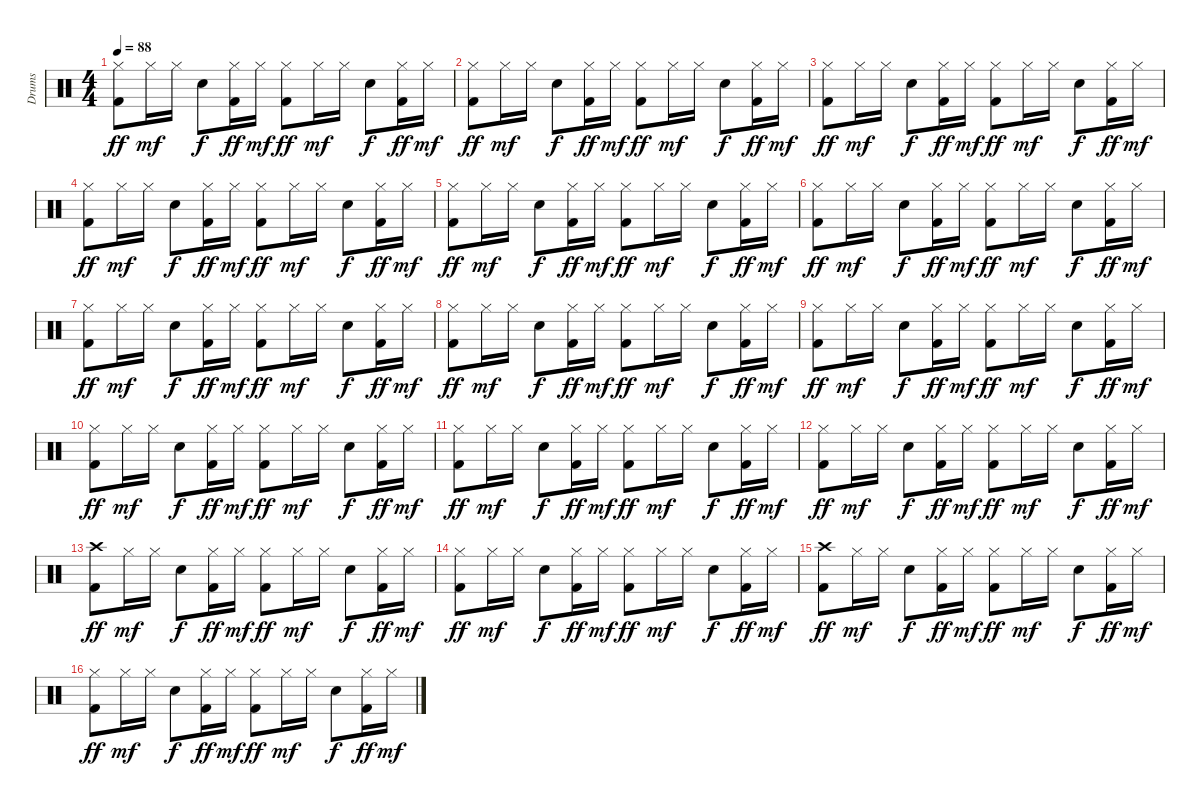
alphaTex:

\track ("Drums" "Drums") {instrument percussion}
\staff {score}
\articulation defaults
\ts (4 4)
\tempo 88
\clef neutral
\ks c
("Hi-Hat (closed)" "Kick (hit) 2").8{dy ff} "Hi-Hat (closed)".16{dy mf} "Hi-Hat (closed)".16 "Snare (hit) 2".8{dy f} ("Hi-Hat (closed)" "Kick (hit) 2").16{dy ff} "Hi-Hat (closed)".16{dy mf} ("Hi-Hat (closed)" "Kick (hit) 2").8{dy ff} "Hi-Hat (closed)".16{dy mf} "Hi-Hat (closed)".16 "Snare (hit) 2".8{dy f} ("Hi-Hat (closed)" "Kick (hit) 2").16{dy ff} "Hi-Hat (closed)".16{dy mf} |
("Hi-Hat (closed)" "Kick (hit) 2").8{dy ff} "Hi-Hat (closed)".16{dy mf} "Hi-Hat (closed)".16 "Snare (hit) 2".8{dy f} ("Hi-Hat (closed)" "Kick (hit) 2").16{dy ff} "Hi-Hat (closed)".16{dy mf} ("Hi-Hat (closed)" "Kick (hit) 2").8{dy ff} "Hi-Hat (closed)".16{dy mf} "Hi-Hat (closed)".16 "Snare (hit) 2".8{dy f} ("Hi-Hat (closed)" "Kick (hit) 2").16{dy ff} "Hi-Hat (closed)".16{dy mf} |
("Hi-Hat (closed)" "Kick (hit) 2").8{dy ff} "Hi-Hat (closed)".16{dy mf} "Hi-Hat (closed)".16 "Snare (hit) 2".8{dy f} ("Hi-Hat (closed)" "Kick (hit) 2").16{dy ff} "Hi-Hat (closed)".16{dy mf} ("Hi-Hat (closed)" "Kick (hit) 2").8{dy ff} "Hi-Hat (closed)".16{dy mf} "Hi-Hat (closed)".16 "Snare (hit) 2".8{dy f} ("Hi-Hat (closed)" "Kick (hit) 2").16{dy ff} "Hi-Hat (closed)".16{dy mf} |
("Hi-Hat (closed)" "Kick (hit) 2").8{dy ff} "Hi-Hat (closed)".16{dy mf} "Hi-Hat (closed)".16 "Snare (hit) 2".8{dy f} ("Hi-Hat (closed)" "Kick (hit) 2").16{dy ff} "Hi-Hat (closed)".16{dy mf} ("Hi-Hat (closed)" "Kick (hit) 2").8{dy ff} "Hi-Hat (closed)".16{dy mf} "Hi-Hat (closed)".16 "Snare (hit) 2".8{dy f} ("Hi-Hat (closed)" "Kick (hit) 2").16{dy ff} "Hi-Hat (closed)".16{dy mf} |
("Hi-Hat (closed)" "Kick (hit) 2").8{dy ff} "Hi-Hat (closed)".16{dy mf} "Hi-Hat (closed)".16 "Snare (hit) 2".8{dy f} ("Hi-Hat (closed)" "Kick (hit) 2").16{dy ff} "Hi-Hat (closed)".16{dy mf} ("Hi-Hat (closed)" "Kick (hit) 2").8{dy ff} "Hi-Hat (closed)".16{dy mf} "Hi-Hat (closed)".16 "Snare (hit) 2".8{dy f} ("Hi-Hat (closed)" "Kick (hit) 2").16{dy ff} "Hi-Hat (closed)".16{dy mf} |
("Hi-Hat (closed)" "Kick (hit) 2").8{dy ff} "Hi-Hat (closed)".16{dy mf} "Hi-Hat (closed)".16 "Snare (hit) 2".8{dy f} ("Hi-Hat (closed)" "Kick (hit) 2").16{dy ff} "Hi-Hat (closed)".16{dy mf} ("Hi-Hat (closed)" "Kick (hit) 2").8{dy ff} "Hi-Hat (closed)".16{dy mf} "Hi-Hat (closed)".16 "Snare (hit) 2".8{dy f} ("Hi-Hat (closed)" "Kick (hit) 2").16{dy ff} "Hi-Hat (closed)".16{dy mf} |
("Hi-Hat (closed)" "Kick (hit) 2").8{dy ff} "Hi-Hat (closed)".16{dy mf} "Hi-Hat (closed)".16 "Snare (hit) 2".8{dy f} ("Hi-Hat (closed)" "Kick (hit) 2").16{dy ff} "Hi-Hat (closed)".16{dy mf} ("Hi-Hat (closed)" "Kick (hit) 2").8{dy ff} "Hi-Hat (closed)".16{dy mf} "Hi-Hat (closed)".16 "Snare (hit) 2".8{dy f} ("Hi-Hat (closed)" "Kick (hit) 2").16{dy ff} "Hi-Hat (closed)".16{dy mf} |
("Hi-Hat (closed)" "Kick (hit) 2").8{dy ff} "Hi-Hat (closed)".16{dy mf} "Hi-Hat (closed)".16 "Snare (hit) 2".8{dy f} ("Hi-Hat (closed)" "Kick (hit) 2").16{dy ff} "Hi-Hat (closed)".16{dy mf} ("Hi-Hat (closed)" "Kick (hit) 2").8{dy ff} "Hi-Hat (closed)".16{dy mf} "Hi-Hat (closed)".16 "Snare (hit) 2".8{dy f} ("Hi-Hat (closed)" "Kick (hit) 2").16{dy ff} "Hi-Hat (closed)".16{dy mf} |
("Hi-Hat (closed)" "Kick (hit) 2").8{dy ff} "Hi-Hat (closed)".16{dy mf} "Hi-Hat (closed)".16 "Snare (hit) 2".8{dy f} ("Hi-Hat (closed)" "Kick (hit) 2").16{dy ff} "Hi-Hat (closed)".16{dy mf} ("Hi-Hat (closed)" "Kick (hit) 2").8{dy ff} "Hi-Hat (closed)".16{dy mf} "Hi-Hat (closed)".16 "Snare (hit) 2".8{dy f} ("Hi-Hat (closed)" "Kick (hit) 2").16{dy ff} "Hi-Hat (closed)".16{dy mf} |
("Hi-Hat (closed)" "Kick (hit) 2").8{dy ff} "Hi-Hat (closed)".16{dy mf} "Hi-Hat (closed)".16 "Snare (hit) 2".8{dy f} ("Hi-Hat (closed)" "Kick (hit) 2").16{dy ff} "Hi-Hat (closed)".16{dy mf} ("Hi-Hat (closed)" "Kick (hit) 2").8{dy ff} "Hi-Hat (closed)".16{dy mf} "Hi-Hat (closed)".16 "Snare (hit) 2".8{dy f} ("Hi-Hat (closed)" "Kick (hit) 2").16{dy ff} "Hi-Hat (closed)".16{dy mf} |
("Hi-Hat (closed)" "Kick (hit) 2").8{dy ff} "Hi-Hat (closed)".16{dy mf} "Hi-Hat (closed)".16 "Snare (hit) 2".8{dy f} ("Hi-Hat (closed)" "Kick (hit) 2").16{dy ff} "Hi-Hat (closed)".16{dy mf} ("Hi-Hat (closed)" "Kick (hit) 2").8{dy ff} "Hi-Hat (closed)".16{dy mf} "Hi-Hat (closed)".16 "Snare (hit) 2".8{dy f} ("Hi-Hat (closed)" "Kick (hit) 2").16{dy ff} "Hi-Hat (closed)".16{dy mf} |
("Hi-Hat (closed)" "Kick (hit) 2").8{dy ff} "Hi-Hat (closed)".16{dy mf} "Hi-Hat (closed)".16 "Snare (hit) 2".8{dy f} ("Hi-Hat (closed)" "Kick (hit) 2").16{dy ff} "Hi-Hat (closed)".16{dy mf} ("Hi-Hat (closed)" "Kick (hit) 2").8{dy ff} "Hi-Hat (closed)".16{dy mf} "Hi-Hat (closed)".16 "Snare (hit) 2".8{dy f} ("Hi-Hat (closed)" "Kick (hit) 2").16{dy ff} "Hi-Hat (closed)".16{dy mf} |
("Crash high (hit)" "Kick (hit) 2").8{dy ff} "Hi-Hat (closed)".16{dy mf} "Hi-Hat (closed)".16 "Snare (hit) 2".8{dy f} ("Hi-Hat (closed)" "Kick (hit) 2").16{dy ff} "Hi-Hat (closed)".16{dy mf} ("Hi-Hat (closed)" "Kick (hit) 2").8{dy ff} "Hi-Hat (closed)".16{dy mf} "Hi-Hat (closed)".16 "Snare (hit) 2".8{dy f} ("Hi-Hat (closed)" "Kick (hit) 2").16{dy ff} "Hi-Hat (closed)".16{dy mf} |
("Hi-Hat (closed)" "Kick (hit) 2").8{dy ff} "Hi-Hat (closed)".16{dy mf} "Hi-Hat (closed)".16 "Snare (hit) 2".8{dy f} ("Hi-Hat (closed)" "Kick (hit) 2").16{dy ff} "Hi-Hat (closed)".16{dy mf} ("Hi-Hat (closed)" "Kick (hit) 2").8{dy ff} "Hi-Hat (closed)".16{dy mf} "Hi-Hat (closed)".16 "Snare (hit) 2".8{dy f} ("Hi-Hat (closed)" "Kick (hit) 2").16{dy ff} "Hi-Hat (closed)".16{dy mf} |
("Crash high (hit)" "Kick (hit) 2").8{dy ff} "Hi-Hat (closed)".16{dy mf} "Hi-Hat (closed)".16 "Snare (hit) 2".8{dy f} ("Hi-Hat (closed)" "Kick (hit) 2").16{dy ff} "Hi-Hat (closed)".16{dy mf} ("Hi-Hat (closed)" "Kick (hit) 2").8{dy ff} "Hi-Hat (closed)".16{dy mf} "Hi-Hat (closed)".16 "Snare (hit) 2".8{dy f} ("Hi-Hat (closed)" "Kick (hit) 2").16{dy ff} "Hi-Hat (closed)".16{dy mf} |
("Hi-Hat (closed)" "Kick (hit) 2").8{dy ff} "Hi-Hat (closed)".16{dy mf} "Hi-Hat (closed)".16 "Snare (hit) 2".8{dy f} ("Hi-Hat (closed)" "Kick (hit) 2").16{dy ff} "Hi-Hat (closed)".16{dy mf} ("Hi-Hat (closed)" "Kick (hit) 2").8{dy ff} "Hi-Hat (closed)".16{dy mf} "Hi-Hat (closed)".16 "Snare (hit) 2".8{dy f} ("Hi-Hat (closed)" "Kick (hit) 2").16{dy ff} "Hi-Hat (closed)".16{dy mf}
